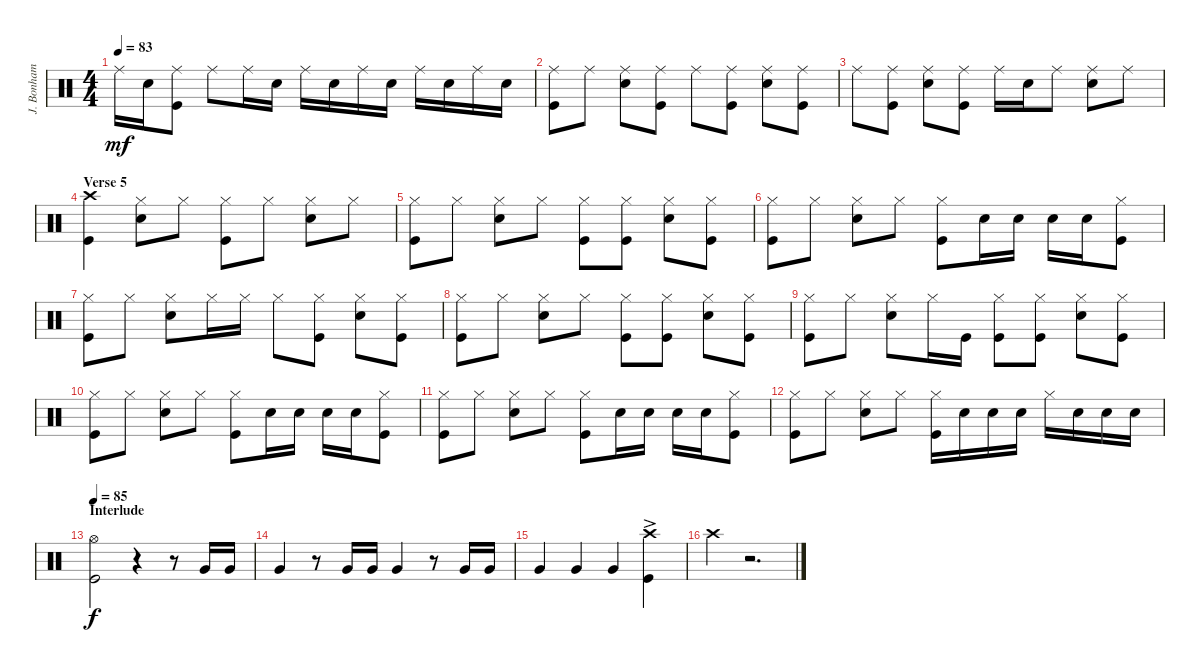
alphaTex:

\track ("J. Bonham" "J. Bonham") {instrument percussion}
\staff {score}
\articulation defaults
\ts (4 4)
\tempo 83
\clef neutral
\ks c "Ride (middle)".16{dy mf} "Snare (hit) 2".16
("Ride (middle)" "Kick (hit)").8 "Ride (middle)".8 "Ride (middle)".16 "Snare (hit) 2".16 "Ride (middle)".16 "Snare (hit) 2".16 "Ride (middle)".16 "Snare (hit) 2".16 "Ride (middle)".16 "Snare (hit) 2".16 "Ride (middle)".16 "Snare (hit) 2".16 |
("Ride (middle)" "Kick (hit)").8 "Ride (middle)".8 ("Ride (middle)" "Snare (hit) 2").8 ("Ride (middle)" "Kick (hit)").8 "Ride (middle)".8 ("Ride (middle)" "Kick (hit)").8 ("Ride (middle)" "Snare (hit) 2").8 ("Ride (middle)" "Kick (hit)").8 |
"Ride (middle)".8 ("Ride (middle)" "Kick (hit)").8 ("Ride (middle)" "Snare (hit) 2").8 ("Ride (middle)" "Kick (hit)").8 "Ride (middle)".16 "Snare (hit) 2".16 "Ride (middle)".8 ("Ride (middle)" "Snare (hit) 2").8 "Ride (middle)".8 |
\section ("" "Verse 5")
("Crash high (hit)" "Kick (hit)").4 ("Hi-Hat (closed)" "Snare (hit) 2").8 "Hi-Hat (closed)".8 ("Hi-Hat (closed)" "Kick (hit)").8 "Hi-Hat (closed)".8 ("Hi-Hat (closed)" "Snare (hit) 2").8 "Hi-Hat (closed)".8 |
("Hi-Hat (closed)" "Kick (hit)").8 "Hi-Hat (closed)".8 ("Hi-Hat (closed)" "Snare (hit) 2").8 "Hi-Hat (closed)".8 ("Hi-Hat (closed)" "Kick (hit)").8 ("Hi-Hat (closed)" "Kick (hit)").8 ("Hi-Hat (closed)" "Snare (hit) 2").8 ("Hi-Hat (closed)" "Kick (hit)").8 |
("Hi-Hat (closed)" "Kick (hit)").8 "Hi-Hat (closed)".8 ("Hi-Hat (closed)" "Snare (hit) 2").8 "Hi-Hat (closed)".8 ("Hi-Hat (closed)" "Kick (hit)").8 "Snare (hit) 2".16 "Snare (hit) 2".16 "Snare (hit) 2".16 "Snare (hit) 2".16 ("Hi-Hat (closed)" "Kick (hit)").8 |
("Hi-Hat (closed)" "Kick (hit)").8 "Hi-Hat (closed)".8 ("Hi-Hat (closed)" "Snare (hit) 2").8 "Hi-Hat (closed)".16 "Hi-Hat (closed)".16 "Hi-Hat (closed)".8 ("Hi-Hat (closed)" "Kick (hit)").8 ("Hi-Hat (closed)" "Snare (hit) 2").8 ("Hi-Hat (closed)" "Kick (hit)").8 |
("Hi-Hat (closed)" "Kick (hit)").8 "Hi-Hat (closed)".8 ("Hi-Hat (closed)" "Snare (hit) 2").8 "Hi-Hat (closed)".8 ("Hi-Hat (closed)" "Kick (hit)").8 ("Hi-Hat (closed)" "Kick (hit)").8 ("Hi-Hat (closed)" "Snare (hit) 2").8 ("Hi-Hat (closed)" "Kick (hit)").8 |
("Hi-Hat (closed)" "Kick (hit)").8 "Hi-Hat (closed)".8 ("Hi-Hat (closed)" "Snare (hit) 2").8 "Hi-Hat (closed)".16 "Kick (hit)".16 ("Hi-Hat (closed)" "Kick (hit)").8 ("Hi-Hat (closed)" "Kick (hit)").8 ("Hi-Hat (closed)" "Snare (hit) 2").8 ("Hi-Hat (closed)" "Kick (hit)").8 |
("Hi-Hat (closed)" "Kick (hit)").8 "Hi-Hat (closed)".8 ("Hi-Hat (closed)" "Snare (hit) 2").8 "Hi-Hat (closed)".8 ("Hi-Hat (closed)" "Kick (hit)").8 "Snare (hit) 2".16 "Snare (hit) 2".16 "Snare (hit) 2".16 "Snare (hit) 2".16 ("Hi-Hat (closed)" "Kick (hit)").8 |
("Hi-Hat (closed)" "Kick (hit)").8 "Hi-Hat (closed)".8 ("Hi-Hat (closed)" "Snare (hit) 2").8 "Hi-Hat (closed)".8 ("Hi-Hat (closed)" "Kick (hit)").8 "Snare (hit) 2".16 "Snare (hit) 2".16 "Snare (hit) 2".16 "Snare (hit) 2".16 ("Hi-Hat (closed)" "Kick (hit)").8 |
("Hi-Hat (closed)" "Kick (hit)").8 "Hi-Hat (closed)".8 ("Hi-Hat (closed)" "Snare (hit) 2").8 "Hi-Hat (closed)".8 ("Hi-Hat (closed)" "Kick (hit)").16 "Snare (hit) 2".16 "Snare (hit) 2".16 "Snare (hit) 2".16 "Hi-Hat (closed)".16 "Snare (hit) 2".16 "Snare (hit) 2".16 "Snare (hit) 2".16 |
\section ("" "Interlude")
\tempo 85
("Hi-Hat (open)" "Kick (hit)").2{dy f} r.4 r.8 "Very Low Tom (hit)".16 "Very Low Tom (hit)".16 |
"Very Low Tom (hit)".4 r.8 "Very Low Tom (hit)".16 "Very Low Tom (hit)".16 "Very Low Tom (hit)".4 r.8 "Very Low Tom (hit)".16 "Very Low Tom (hit)".16 |
"Very Low Tom (hit)".4 "Very Low Tom (hit)".4 "Very Low Tom (hit)".4 ("Crash high (hit)"{ac} "Kick (hit)").4 |
"Crash high (hit)".4 r.2{d}
